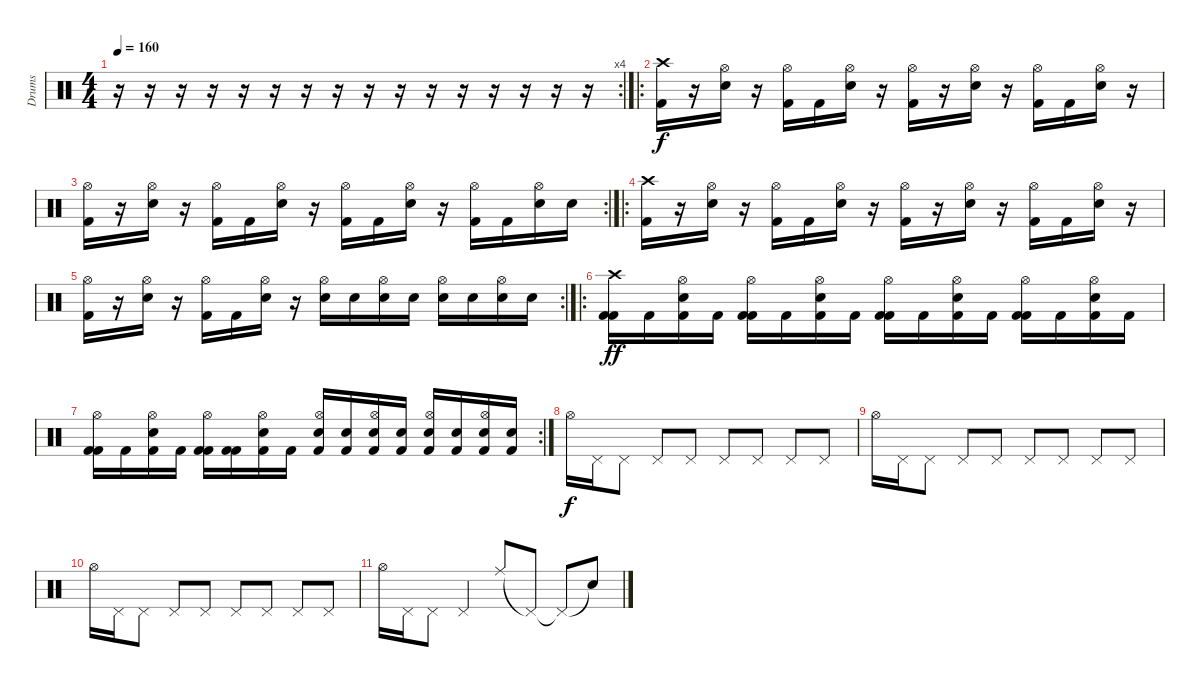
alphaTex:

\track ("Drums" "Drums") {instrument percussion}
\staff {score}
\articulation defaults
\rc 4
\ts (4 4)
\tempo 160
\clef neutral
\ks c
r.16{dy f} r.16 r.16 r.16 r.16 r.16 r.16 r.16 r.16 r.16 r.16 r.16 r.16 r.16 r.16 r.16 |
\ro
("Crash high (hit)" "Kick (hit) 2").16 r.16 ("Hi-Hat (open)" "Electric Snare (hit)").16 r.16 ("Hi-Hat (open)" "Kick (hit) 2").16 "Kick (hit) 2".16 ("Hi-Hat (open)" "Electric Snare (hit)").16 r.16 ("Hi-Hat (open)" "Kick (hit) 2").16 r.16 ("Hi-Hat (open)" "Electric Snare (hit)").16 r.16 ("Hi-Hat (open)" "Kick (hit) 2").16 "Kick (hit) 2".16 ("Hi-Hat (open)" "Electric Snare (hit)").16 r.16 |
\rc 2
("Hi-Hat (open)" "Kick (hit) 2").16 r.16 ("Hi-Hat (open)" "Electric Snare (hit)").16 r.16 ("Hi-Hat (open)" "Kick (hit) 2").16 "Kick (hit) 2".16 ("Hi-Hat (open)" "Electric Snare (hit)").16 r.16 ("Hi-Hat (open)" "Kick (hit) 2").16 "Kick (hit) 2".16 ("Hi-Hat (open)" "Electric Snare (hit)").16 r.16 ("Hi-Hat (open)" "Kick (hit) 2").16 "Kick (hit) 2".16 ("Hi-Hat (open)" "Electric Snare (hit)").16 "Electric Snare (hit)".16 |
\ro
("Crash high (hit)" "Kick (hit) 2").16 r.16 ("Hi-Hat (open)" "Electric Snare (hit)").16 r.16 ("Hi-Hat (open)" "Kick (hit) 2").16 "Kick (hit) 2".16 ("Hi-Hat (open)" "Electric Snare (hit)").16 r.16 ("Hi-Hat (open)" "Kick (hit) 2").16 r.16 ("Hi-Hat (open)" "Electric Snare (hit)").16 r.16 ("Hi-Hat (open)" "Kick (hit) 2").16 "Kick (hit) 2".16 ("Hi-Hat (open)" "Electric Snare (hit)").16 r.16 |
\rc 2
("Hi-Hat (open)" "Kick (hit) 2").16 r.16 ("Hi-Hat (open)" "Electric Snare (hit)").16 r.16 ("Hi-Hat (open)" "Kick (hit) 2").16 "Kick (hit) 2".16 ("Hi-Hat (open)" "Electric Snare (hit)").16 r.16 ("Hi-Hat (open)" "Electric Snare (hit)").16 "Electric Snare (hit)".16 ("Hi-Hat (open)" "Electric Snare (hit)").16 "Electric Snare (hit)".16 ("Hi-Hat (open)" "Electric Snare (hit)").16 "Electric Snare (hit)".16 ("Hi-Hat (open)" "Electric Snare (hit)").16 "Electric Snare (hit)".16 |
\ro
("Kick (hit) 2" "Crash high (hit)" "Kick (hit) 2").16{dy ff} "Kick (hit) 2".16 ("Kick (hit) 2" "Hi-Hat (open)" "Electric Snare (hit)").16 "Kick (hit) 2".16 ("Kick (hit) 2" "Hi-Hat (open)" "Kick (hit) 2").16 "Kick (hit) 2".16 ("Kick (hit) 2" "Hi-Hat (open)" "Electric Snare (hit)").16 "Kick (hit) 2".16 ("Kick (hit) 2" "Hi-Hat (open)" "Kick (hit) 2").16 "Kick (hit) 2".16 ("Kick (hit) 2" "Hi-Hat (open)" "Electric Snare (hit)").16 "Kick (hit) 2".16 ("Kick (hit) 2" "Hi-Hat (open)" "Kick (hit) 2").16 "Kick (hit) 2".16 ("Kick (hit) 2" "Hi-Hat (open)" "Electric Snare (hit)").16 "Kick (hit) 2".16 |
\rc 2
("Kick (hit) 2" "Hi-Hat (open)" "Kick (hit) 2").16 "Kick (hit) 2".16 ("Kick (hit) 2" "Hi-Hat (open)" "Electric Snare (hit)").16 "Kick (hit) 2".16 ("Kick (hit) 2" "Hi-Hat (open)" "Kick (hit) 2").16 ("Kick (hit) 2" "Kick (hit) 2").16 ("Kick (hit) 2" "Hi-Hat (open)" "Electric Snare (hit)").16 "Kick (hit) 2".16 ("Kick (hit) 2" "Hi-Hat (open)" "Electric Snare (hit)").16 ("Kick (hit) 2" "Electric Snare (hit)").16 ("Kick (hit) 2" "Hi-Hat (open)" "Electric Snare (hit)").16 ("Kick (hit) 2" "Electric Snare (hit)").16 ("Kick (hit) 2" "Hi-Hat (open)" "Electric Snare (hit)").16 ("Kick (hit) 2" "Electric Snare (hit)").16 ("Kick (hit) 2" "Hi-Hat (open)" "Electric Snare (hit)").16 ("Kick (hit) 2" "Electric Snare (hit)").16 |
"Hi-Hat (open)".16{dy f} "Pedal Hi-Hat (hit)".16 "Pedal Hi-Hat (hit)".8 "Pedal Hi-Hat (hit)".8 "Pedal Hi-Hat (hit)".8 "Pedal Hi-Hat (hit)".8 "Pedal Hi-Hat (hit)".8 "Pedal Hi-Hat (hit)".8 "Pedal Hi-Hat (hit)".8 |
"Hi-Hat (open)".16 "Pedal Hi-Hat (hit)".16 "Pedal Hi-Hat (hit)".8 "Pedal Hi-Hat (hit)".8 "Pedal Hi-Hat (hit)".8 "Pedal Hi-Hat (hit)".8 "Pedal Hi-Hat (hit)".8 "Pedal Hi-Hat (hit)".8 "Pedal Hi-Hat (hit)".8 |
"Hi-Hat (open)".16 "Pedal Hi-Hat (hit)".16 "Pedal Hi-Hat (hit)".8 "Pedal Hi-Hat (hit)".8 "Pedal Hi-Hat (hit)".8 "Pedal Hi-Hat (hit)".8 "Pedal Hi-Hat (hit)".8 "Pedal Hi-Hat (hit)".8 "Pedal Hi-Hat (hit)".8 |
"Hi-Hat (open)".16 "Pedal Hi-Hat (hit)".16 "Pedal Hi-Hat (hit)".8 "Pedal Hi-Hat (hit)".4 "Ride (middle)".8 "Pedal Hi-Hat (hit)"{t}.8 "Pedal Hi-Hat (hit)"{t}.8 "Snare (hit)"{t}.8
